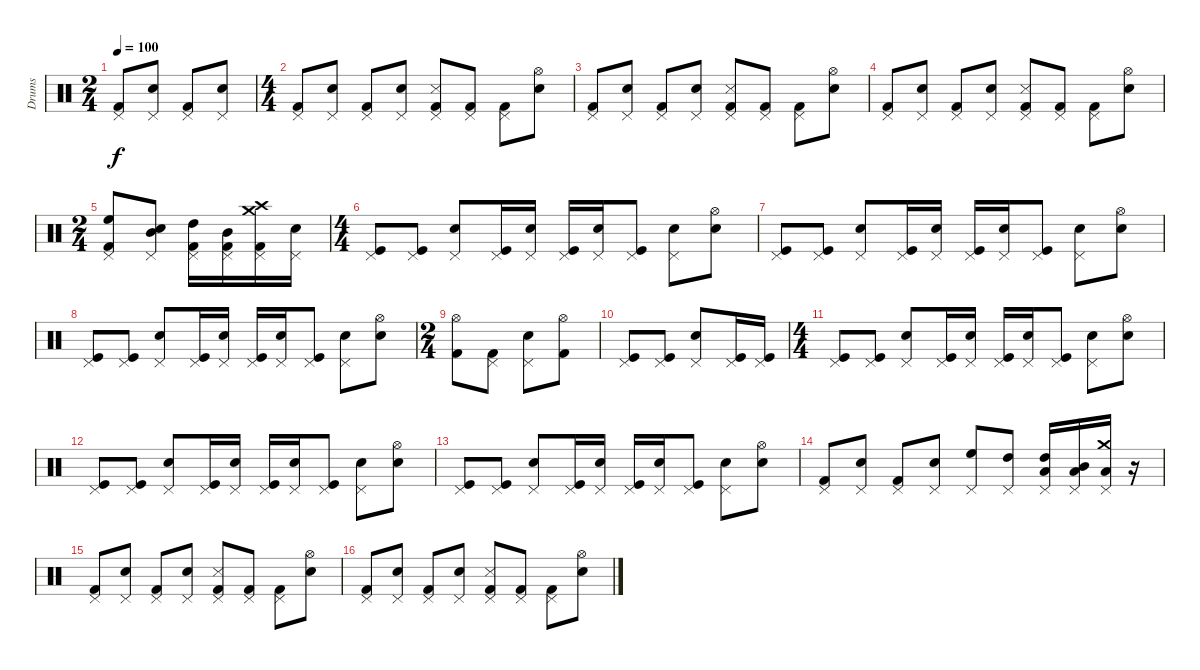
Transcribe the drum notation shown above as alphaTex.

\track ("Drums" "Drums") {instrument percussion}
\staff {score}
\articulation defaults
\ts (2 4)
\tempo 100
\clef neutral
\ks c
("Pedal Hi-Hat (hit)" "Kick (hit) 2").8{dy f} ("Pedal Hi-Hat (hit)" "Snare (hit) 2").8 ("Pedal Hi-Hat (hit)" "Kick (hit) 2").8 ("Pedal Hi-Hat (hit)" "Snare (hit) 2").8 |
\ts (4 4)
("Pedal Hi-Hat (hit)" "Kick (hit) 2").8 ("Pedal Hi-Hat (hit)" "Snare (hit) 2").8 ("Pedal Hi-Hat (hit)" "Kick (hit) 2").8 ("Pedal Hi-Hat (hit)" "Snare (hit) 2").8 ("Pedal Hi-Hat (hit)" "Kick (hit) 2" "Snare (side stick) 3").8 ("Pedal Hi-Hat (hit)" "Kick (hit) 2").8 ("Pedal Hi-Hat (hit)" "Kick (hit) 2").8 ("Hi-Hat (open)" "Snare (hit) 2").8 |
("Pedal Hi-Hat (hit)" "Kick (hit) 2").8 ("Pedal Hi-Hat (hit)" "Snare (hit) 2").8 ("Pedal Hi-Hat (hit)" "Kick (hit) 2").8 ("Pedal Hi-Hat (hit)" "Snare (hit) 2").8 ("Pedal Hi-Hat (hit)" "Kick (hit) 2" "Snare (side stick) 3").8 ("Pedal Hi-Hat (hit)" "Kick (hit) 2").8 ("Pedal Hi-Hat (hit)" "Kick (hit) 2").8 ("Hi-Hat (open)" "Snare (hit) 2").8 |
("Pedal Hi-Hat (hit)" "Kick (hit) 2").8 ("Pedal Hi-Hat (hit)" "Snare (hit) 2").8 ("Pedal Hi-Hat (hit)" "Kick (hit) 2").8 ("Pedal Hi-Hat (hit)" "Snare (hit) 2").8 ("Pedal Hi-Hat (hit)" "Kick (hit) 2" "Snare (side stick) 3").8 ("Pedal Hi-Hat (hit)" "Kick (hit) 2").8 ("Pedal Hi-Hat (hit)" "Kick (hit) 2").8 ("Hi-Hat (open)" "Snare (hit) 2").8 |
\ts (2 4)
("Pedal Hi-Hat (hit)" "Kick (hit) 2" "High Floor Tom (hit)").8 ("Pedal Hi-Hat (hit)" "Snare (hit) 2" "Mid Tom (hit)").8 ("Pedal Hi-Hat (hit)" "Kick (hit) 2" "High Tom (hit)").16 ("Pedal Hi-Hat (hit)" "Kick (hit) 2" "Mid Tom (hit)").16 ("Pedal Hi-Hat (hit)" "Kick (hit) 2" "Crash medium (hit)" "Crash high (hit)").16 ("Pedal Hi-Hat (hit)" "Snare (hit) 2").16 |
\ts (4 4)
("Pedal Hi-Hat (hit)" "Kick (hit)").8 ("Pedal Hi-Hat (hit)" "Kick (hit)").8 ("Pedal Hi-Hat (hit)" "Snare (hit) 2").8 ("Pedal Hi-Hat (hit)" "Kick (hit)").16 ("Pedal Hi-Hat (hit)" "Snare (hit) 2").16 ("Pedal Hi-Hat (hit)" "Kick (hit)").16 ("Pedal Hi-Hat (hit)" "Snare (hit) 2").16 ("Pedal Hi-Hat (hit)" "Kick (hit)").8 ("Pedal Hi-Hat (hit)" "Snare (hit) 2").8 ("Hi-Hat (open)" "Snare (hit) 2").8 |
("Pedal Hi-Hat (hit)" "Kick (hit)").8 ("Pedal Hi-Hat (hit)" "Kick (hit)").8 ("Pedal Hi-Hat (hit)" "Snare (hit) 2").8 ("Pedal Hi-Hat (hit)" "Kick (hit)").16 ("Pedal Hi-Hat (hit)" "Snare (hit) 2").16 ("Pedal Hi-Hat (hit)" "Kick (hit)").16 ("Pedal Hi-Hat (hit)" "Snare (hit) 2").16 ("Pedal Hi-Hat (hit)" "Kick (hit)").8 ("Pedal Hi-Hat (hit)" "Snare (hit) 2").8 ("Hi-Hat (open)" "Snare (hit) 2").8 |
("Pedal Hi-Hat (hit)" "Kick (hit)").8 ("Pedal Hi-Hat (hit)" "Kick (hit)").8 ("Pedal Hi-Hat (hit)" "Snare (hit) 2").8 ("Pedal Hi-Hat (hit)" "Kick (hit)").16 ("Pedal Hi-Hat (hit)" "Snare (hit) 2").16 ("Pedal Hi-Hat (hit)" "Kick (hit)").16 ("Pedal Hi-Hat (hit)" "Snare (hit) 2").16 ("Pedal Hi-Hat (hit)" "Kick (hit)").8 ("Pedal Hi-Hat (hit)" "Snare (hit) 2").8 ("Hi-Hat (open)" "Snare (hit) 2").8 |
\ts (2 4)
("Hi-Hat (open)" "Kick (hit) 2").8 ("Pedal Hi-Hat (hit)" "Kick (hit) 2").8 ("Pedal Hi-Hat (hit)" "Snare (hit) 2").8 ("Hi-Hat (open)" "Kick (hit) 2").8 |
("Pedal Hi-Hat (hit)" "Kick (hit)").8 ("Pedal Hi-Hat (hit)" "Kick (hit)").8 ("Pedal Hi-Hat (hit)" "Snare (hit) 2").8 ("Pedal Hi-Hat (hit)" "Kick (hit)").16 ("Pedal Hi-Hat (hit)" "Kick (hit)").16 |
\ts (4 4)
("Pedal Hi-Hat (hit)" "Kick (hit)").8 ("Pedal Hi-Hat (hit)" "Kick (hit)").8 ("Pedal Hi-Hat (hit)" "Snare (hit) 2").8 ("Pedal Hi-Hat (hit)" "Kick (hit)").16 ("Pedal Hi-Hat (hit)" "Snare (hit) 2").16 ("Pedal Hi-Hat (hit)" "Kick (hit)").16 ("Pedal Hi-Hat (hit)" "Snare (hit) 2").16 ("Pedal Hi-Hat (hit)" "Kick (hit)").8 ("Pedal Hi-Hat (hit)" "Snare (hit) 2").8 ("Hi-Hat (open)" "Snare (hit) 2").8 |
("Pedal Hi-Hat (hit)" "Kick (hit)").8 ("Pedal Hi-Hat (hit)" "Kick (hit)").8 ("Pedal Hi-Hat (hit)" "Snare (hit) 2").8 ("Pedal Hi-Hat (hit)" "Kick (hit)").16 ("Pedal Hi-Hat (hit)" "Snare (hit) 2").16 ("Pedal Hi-Hat (hit)" "Kick (hit)").16 ("Pedal Hi-Hat (hit)" "Snare (hit) 2").16 ("Pedal Hi-Hat (hit)" "Kick (hit)").8 ("Pedal Hi-Hat (hit)" "Snare (hit) 2").8 ("Hi-Hat (open)" "Snare (hit) 2").8 |
("Pedal Hi-Hat (hit)" "Kick (hit)").8 ("Pedal Hi-Hat (hit)" "Kick (hit)").8 ("Pedal Hi-Hat (hit)" "Snare (hit) 2").8 ("Pedal Hi-Hat (hit)" "Kick (hit)").16 ("Pedal Hi-Hat (hit)" "Snare (hit) 2").16 ("Pedal Hi-Hat (hit)" "Kick (hit)").16 ("Pedal Hi-Hat (hit)" "Snare (hit) 2").16 ("Pedal Hi-Hat (hit)" "Kick (hit)").8 ("Pedal Hi-Hat (hit)" "Snare (hit) 2").8 ("Hi-Hat (open)" "Snare (hit) 2").8 |
("Pedal Hi-Hat (hit)" "Kick (hit) 2").8 ("Pedal Hi-Hat (hit)" "Snare (hit) 2").8 ("Pedal Hi-Hat (hit)" "Kick (hit) 2").8 ("Pedal Hi-Hat (hit)" "Snare (hit) 2").8 ("Pedal Hi-Hat (hit)" "High Floor Tom (hit)").8 ("Pedal Hi-Hat (hit)" "High Tom (hit)").8 ("Low Tom (hit)" "High Tom (hit)" "Pedal Hi-Hat (hit)").16 ("Low Tom (hit)" "Mid Tom (hit)" "Pedal Hi-Hat (hit)").16 ("Crash medium (hit)" "Low Tom (hit)" "Pedal Hi-Hat (hit)").16 r.16 |
("Pedal Hi-Hat (hit)" "Kick (hit) 2").8 ("Pedal Hi-Hat (hit)" "Snare (hit) 2").8 ("Pedal Hi-Hat (hit)" "Kick (hit) 2").8 ("Pedal Hi-Hat (hit)" "Snare (hit) 2").8 ("Pedal Hi-Hat (hit)" "Kick (hit) 2" "Snare (side stick) 3").8 ("Pedal Hi-Hat (hit)" "Kick (hit) 2").8 ("Pedal Hi-Hat (hit)" "Kick (hit) 2").8 ("Hi-Hat (open)" "Snare (hit) 2").8 |
("Pedal Hi-Hat (hit)" "Kick (hit) 2").8 ("Pedal Hi-Hat (hit)" "Snare (hit) 2").8 ("Pedal Hi-Hat (hit)" "Kick (hit) 2").8 ("Pedal Hi-Hat (hit)" "Snare (hit) 2").8 ("Pedal Hi-Hat (hit)" "Kick (hit) 2" "Snare (side stick) 3").8 ("Pedal Hi-Hat (hit)" "Kick (hit) 2").8 ("Pedal Hi-Hat (hit)" "Kick (hit) 2").8 ("Hi-Hat (open)" "Snare (hit) 2").8
